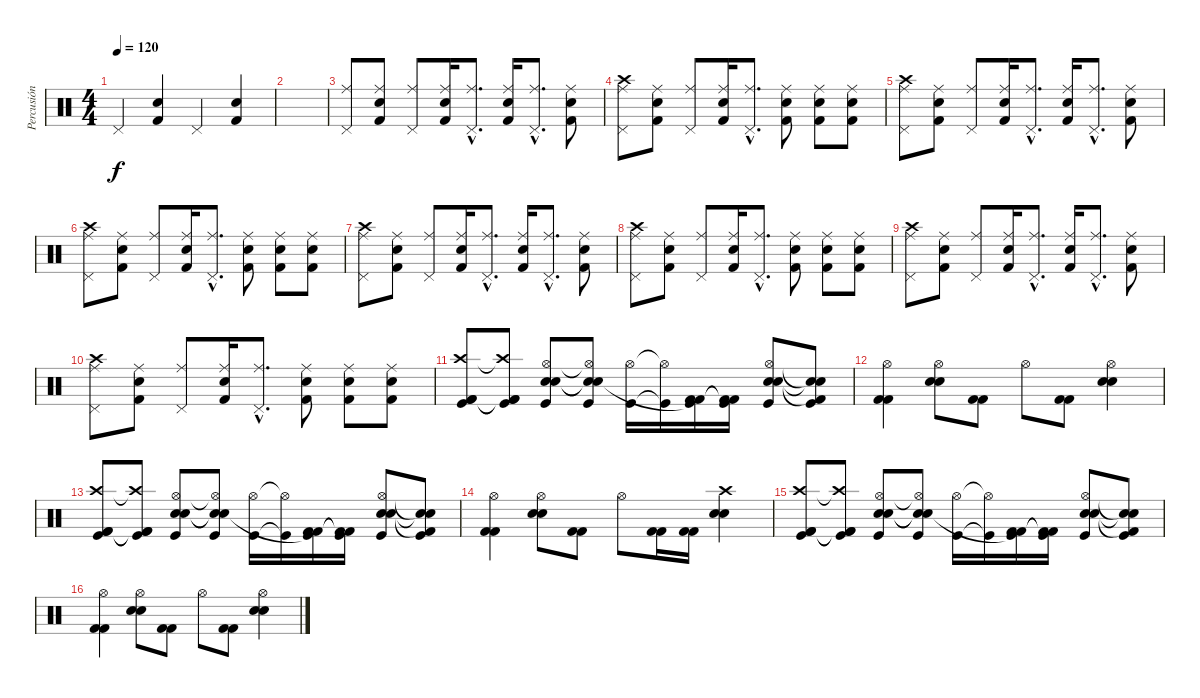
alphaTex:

\track ("Percusión" "Percusión") {instrument percussion}
\staff {score}
\articulation defaults
\ts (4 4)
\tempo 120
\clef neutral
\ks c "Pedal Hi-Hat (hit)".4{dy f}
("Kick (hit) 2" "Snare (hit) 2").4 "Pedal Hi-Hat (hit)".4 ("Kick (hit) 2" "Snare (hit) 2").4 |
|
("Ride (middle)" "Pedal Hi-Hat (hit)").8 ("Ride (middle)" "Kick (hit) 2" "Snare (hit) 2").8 ("Ride (middle)" "Pedal Hi-Hat (hit)").8 ("Ride (middle)" "Kick (hit) 2" "Snare (hit) 2").16 ("Ride (middle)"{hac} "Pedal Hi-Hat (hit)"{hac}).8{d} ("Ride (middle)" "Kick (hit) 2" "Snare (hit) 2").16 ("Ride (middle)"{hac} "Pedal Hi-Hat (hit)"{hac}).8{d} ("Ride (middle)" "Kick (hit) 2" "Snare (hit) 2").8 |
("Crash high (hit)" "Ride (middle)" "Pedal Hi-Hat (hit)").8 ("Ride (middle)" "Kick (hit) 2" "Snare (hit) 2").8 ("Ride (middle)" "Pedal Hi-Hat (hit)").8 ("Ride (middle)" "Kick (hit) 2" "Snare (hit) 2").16 ("Ride (middle)"{hac} "Pedal Hi-Hat (hit)"{hac}).8{d} ("Ride (middle)" "Kick (hit) 2" "Snare (hit) 2").8 ("Ride (middle)" "Kick (hit) 2" "Snare (hit) 2").8 ("Ride (middle)" "Kick (hit) 2" "Snare (hit) 2").8 |
("Crash high (hit)" "Ride (middle)" "Pedal Hi-Hat (hit)").8 ("Ride (middle)" "Kick (hit) 2" "Snare (hit) 2").8 ("Ride (middle)" "Pedal Hi-Hat (hit)").8 ("Ride (middle)" "Kick (hit) 2" "Snare (hit) 2").16 ("Ride (middle)"{hac} "Pedal Hi-Hat (hit)"{hac}).8{d} ("Ride (middle)" "Kick (hit) 2" "Snare (hit) 2").16 ("Ride (middle)"{hac} "Pedal Hi-Hat (hit)"{hac}).8{d} ("Ride (middle)" "Kick (hit) 2" "Snare (hit) 2").8 |
("Crash high (hit)" "Ride (middle)" "Pedal Hi-Hat (hit)").8 ("Ride (middle)" "Kick (hit) 2" "Snare (hit) 2").8 ("Ride (middle)" "Pedal Hi-Hat (hit)").8 ("Ride (middle)" "Kick (hit) 2" "Snare (hit) 2").16 ("Ride (middle)"{hac} "Pedal Hi-Hat (hit)"{hac}).8{d} ("Ride (middle)" "Kick (hit) 2" "Snare (hit) 2").8 ("Ride (middle)" "Kick (hit) 2" "Snare (hit) 2").8 ("Ride (middle)" "Kick (hit) 2" "Snare (hit) 2").8 |
("Crash high (hit)" "Ride (middle)" "Pedal Hi-Hat (hit)").8 ("Ride (middle)" "Kick (hit) 2" "Snare (hit) 2").8 ("Ride (middle)" "Pedal Hi-Hat (hit)").8 ("Ride (middle)" "Kick (hit) 2" "Snare (hit) 2").16 ("Ride (middle)"{hac} "Pedal Hi-Hat (hit)"{hac}).8{d} ("Ride (middle)" "Kick (hit) 2" "Snare (hit) 2").16 ("Ride (middle)"{hac} "Pedal Hi-Hat (hit)"{hac}).8{d} ("Ride (middle)" "Kick (hit) 2" "Snare (hit) 2").8 |
("Crash high (hit)" "Ride (middle)" "Pedal Hi-Hat (hit)").8 ("Ride (middle)" "Kick (hit) 2" "Snare (hit) 2").8 ("Ride (middle)" "Pedal Hi-Hat (hit)").8 ("Ride (middle)" "Kick (hit) 2" "Snare (hit) 2").16 ("Ride (middle)"{hac} "Pedal Hi-Hat (hit)"{hac}).8{d} ("Ride (middle)" "Kick (hit) 2" "Snare (hit) 2").8 ("Ride (middle)" "Kick (hit) 2" "Snare (hit) 2").8 ("Ride (middle)" "Kick (hit) 2" "Snare (hit) 2").8 |
("Crash high (hit)" "Ride (middle)" "Pedal Hi-Hat (hit)").8 ("Ride (middle)" "Kick (hit) 2" "Snare (hit) 2").8 ("Ride (middle)" "Pedal Hi-Hat (hit)").8 ("Ride (middle)" "Kick (hit) 2" "Snare (hit) 2").16 ("Ride (middle)"{hac} "Pedal Hi-Hat (hit)"{hac}).8{d} ("Ride (middle)" "Kick (hit) 2" "Snare (hit) 2").16 ("Ride (middle)"{hac} "Pedal Hi-Hat (hit)"{hac}).8{d} ("Ride (middle)" "Kick (hit) 2" "Snare (hit) 2").8 |
("Crash high (hit)" "Ride (middle)" "Pedal Hi-Hat (hit)").8 ("Ride (middle)" "Kick (hit) 2" "Snare (hit) 2").8 ("Ride (middle)" "Pedal Hi-Hat (hit)").8 ("Ride (middle)" "Kick (hit) 2" "Snare (hit) 2").16 ("Ride (middle)"{hac} "Pedal Hi-Hat (hit)"{hac}).8{d} ("Ride (middle)" "Kick (hit) 2" "Snare (hit) 2").8 ("Ride (middle)" "Kick (hit) 2" "Snare (hit) 2").8 ("Ride (middle)" "Kick (hit) 2" "Snare (hit) 2").8 |
("Crash high (hit)" "Kick (hit) 2" "Kick (hit) 2" "Kick (hit)").8 ("Crash high (hit)"{t} "Kick (hit) 2"{t} "Kick (hit) 2"{t} "Kick (hit)").8 ("Hi-Hat (open)" "Electric Snare (hit)" "Electric Snare (hit)" "Kick (hit)").8 ("Hi-Hat (open)"{t} "Electric Snare (hit)"{t} "Electric Snare (hit)"{t} "Kick (hit)").8 ("Hi-Hat (open)" "Kick (hit)").16 ("Hi-Hat (open)"{t} "Kick (hit)"{t}).16 ("Kick (hit) 2" "Kick (hit) 2" "Kick (hit)"{t}).16 ("Kick (hit) 2"{t} "Kick (hit) 2"{t} "Kick (hit)").16 ("Hi-Hat (open)" "Electric Snare (hit)" "Electric Snare (hit)" "Kick (hit)").8 ("Snare (hit)"{t} "Snare (hit)"{t} "Kick (hit) 2"{t} "Kick (hit)").8 |
("Hi-Hat (open)" "Kick (hit) 2" "Kick (hit) 2").4 ("Hi-Hat (open)" "Electric Snare (hit)" "Electric Snare (hit)").8 ("Kick (hit) 2" "Kick (hit) 2").8 "Hi-Hat (open)".8 ("Kick (hit) 2" "Kick (hit) 2").8 ("Hi-Hat (open)" "Electric Snare (hit)" "Electric Snare (hit)").4 |
("Crash high (hit)" "Kick (hit) 2" "Kick (hit) 2" "Kick (hit)").8 ("Crash high (hit)"{t} "Kick (hit) 2"{t} "Kick (hit) 2"{t} "Kick (hit)").8 ("Hi-Hat (open)" "Electric Snare (hit)" "Electric Snare (hit)" "Kick (hit)").8 ("Hi-Hat (open)"{t} "Electric Snare (hit)"{t} "Electric Snare (hit)"{t} "Kick (hit)").8 ("Hi-Hat (open)" "Kick (hit)").16 ("Hi-Hat (open)"{t} "Kick (hit)"{t}).16 ("Kick (hit) 2" "Kick (hit) 2" "Kick (hit)"{t}).16 ("Kick (hit) 2"{t} "Kick (hit) 2"{t} "Kick (hit)").16 ("Hi-Hat (open)" "Electric Snare (hit)" "Electric Snare (hit)" "Kick (hit)").8 ("Snare (hit)"{t} "Snare (hit)"{t} "Kick (hit) 2"{t} "Kick (hit)").8 |
("Hi-Hat (open)" "Kick (hit) 2" "Kick (hit) 2").4 ("Hi-Hat (open)" "Electric Snare (hit)" "Electric Snare (hit)").8 ("Kick (hit) 2" "Kick (hit) 2").8 "Hi-Hat (open)".8 ("Kick (hit) 2" "Kick (hit) 2").16 ("Kick (hit) 2" "Kick (hit) 2").16 ("Crash high (hit)" "Electric Snare (hit)" "Electric Snare (hit)").4 |
("Crash high (hit)" "Kick (hit) 2" "Kick (hit) 2" "Kick (hit)").8 ("Crash high (hit)"{t} "Kick (hit) 2"{t} "Kick (hit) 2"{t} "Kick (hit)").8 ("Hi-Hat (open)" "Electric Snare (hit)" "Electric Snare (hit)" "Kick (hit)").8 ("Hi-Hat (open)"{t} "Electric Snare (hit)"{t} "Electric Snare (hit)"{t} "Kick (hit)").8 ("Hi-Hat (open)" "Kick (hit)").16 ("Hi-Hat (open)"{t} "Kick (hit)"{t}).16 ("Kick (hit) 2" "Kick (hit) 2" "Kick (hit)"{t}).16 ("Kick (hit) 2"{t} "Kick (hit) 2"{t} "Kick (hit)").16 ("Hi-Hat (open)" "Electric Snare (hit)" "Electric Snare (hit)" "Kick (hit)").8 ("Snare (hit)"{t} "Snare (hit)"{t} "Kick (hit) 2"{t} "Kick (hit)").8 |
("Hi-Hat (open)" "Kick (hit) 2" "Kick (hit) 2").4 ("Hi-Hat (open)" "Electric Snare (hit)" "Electric Snare (hit)").8 ("Kick (hit) 2" "Kick (hit) 2").8 "Hi-Hat (open)".8 ("Kick (hit) 2" "Kick (hit) 2").8 ("Hi-Hat (open)" "Electric Snare (hit)" "Electric Snare (hit)").4
